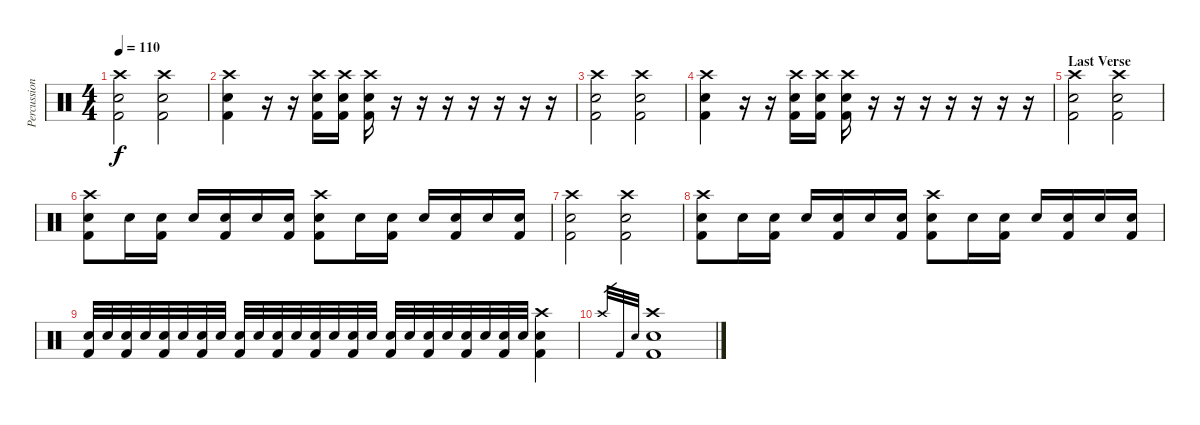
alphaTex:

\track ("Percussion" "Percussion") {instrument percussion}
\staff {score}
\articulation defaults
\ts (4 4)
\tempo 110
\clef neutral
\ks c
("Crash high (hit)" "Snare (hit) 2" "Kick (hit) 2").2{dy f} ("Kick (hit) 2" "Snare (hit) 2" "Crash high (hit)").2 |
("Crash high (hit)" "Kick (hit) 2" "Snare (hit) 2").4 r.16 r.16 ("Kick (hit) 2" "Snare (hit) 2" "Crash high (hit)").16 ("Crash high (hit)" "Kick (hit) 2" "Snare (hit) 2").16 ("Crash high (hit)" "Kick (hit) 2" "Snare (hit) 2").16 r.16 r.16 r.16 r.16 r.16 r.16 r.16 |
("Crash high (hit)" "Snare (hit) 2" "Kick (hit) 2").2 ("Kick (hit) 2" "Snare (hit) 2" "Crash high (hit)").2 |
("Crash high (hit)" "Kick (hit) 2" "Snare (hit) 2").4 r.16 r.16 ("Kick (hit) 2" "Snare (hit) 2" "Crash high (hit)").16 ("Crash high (hit)" "Kick (hit) 2" "Snare (hit) 2").16 ("Crash high (hit)" "Kick (hit) 2" "Snare (hit) 2").16 r.16 r.16 r.16 r.16 r.16 r.16 r.16 |
\section ("" "Last Verse")
("Kick (hit) 2" "Snare (hit) 2" "Crash high (hit)").2 ("Snare (hit) 2" "Kick (hit) 2" "Crash high (hit)").2 |
("Kick (hit) 2" "Snare (hit) 2" "Crash high (hit)").8 "Snare (hit) 2".16 ("Kick (hit) 2" "Snare (hit) 2").16 "Snare (hit) 2".16 ("Kick (hit) 2" "Snare (hit) 2").16 "Snare (hit) 2".16 ("Kick (hit) 2" "Snare (hit) 2").16 ("Kick (hit) 2" "Snare (hit) 2" "Crash high (hit)").8 "Snare (hit) 2".16 ("Kick (hit) 2" "Snare (hit) 2").16 "Snare (hit) 2".16 ("Kick (hit) 2" "Snare (hit) 2").16 "Snare (hit) 2".16 ("Kick (hit) 2" "Snare (hit) 2").16 |
("Kick (hit) 2" "Snare (hit) 2" "Crash high (hit)").2 ("Snare (hit) 2" "Kick (hit) 2" "Crash high (hit)").2 |
("Kick (hit) 2" "Snare (hit) 2" "Crash high (hit)").8 "Snare (hit) 2".16 ("Kick (hit) 2" "Snare (hit) 2").16 "Snare (hit) 2".16 ("Kick (hit) 2" "Snare (hit) 2").16 "Snare (hit) 2".16 ("Kick (hit) 2" "Snare (hit) 2").16 ("Kick (hit) 2" "Snare (hit) 2" "Crash high (hit)").8 "Snare (hit) 2".16 ("Kick (hit) 2" "Snare (hit) 2").16 "Snare (hit) 2".16 ("Kick (hit) 2" "Snare (hit) 2").16 "Snare (hit) 2".16 ("Kick (hit) 2" "Snare (hit) 2").16 |
("Kick (hit) 2" "Snare (hit) 2").32 "Snare (hit) 2".32 ("Kick (hit) 2" "Snare (hit) 2").32 "Snare (hit) 2".32 ("Kick (hit) 2" "Snare (hit) 2").32 "Snare (hit) 2".32 ("Kick (hit) 2" "Snare (hit) 2").32 "Snare (hit) 2".32 ("Kick (hit) 2" "Snare (hit) 2").32 "Snare (hit) 2".32 ("Kick (hit) 2" "Snare (hit) 2").32 "Snare (hit) 2".32 ("Kick (hit) 2" "Snare (hit) 2").32 "Snare (hit) 2".32 ("Kick (hit) 2" "Snare (hit) 2").32 "Snare (hit) 2".32 ("Kick (hit) 2" "Snare (hit) 2").32 "Snare (hit) 2".32 ("Kick (hit) 2" "Snare (hit) 2").32 "Snare (hit) 2".32 ("Kick (hit) 2" "Snare (hit) 2").32 "Snare (hit) 2".32 ("Kick (hit) 2" "Snare (hit) 2").32 "Snare (hit) 2".32 ("Kick (hit) 2" "Snare (hit) 2" "Crash high (hit)").4 |
"Crash high (hit)".32{gr} "Kick (hit) 2".32{gr} "Snare (hit) 2".32{gr} ("Crash high (hit)" "Kick (hit) 2" "Snare (hit) 2").1
